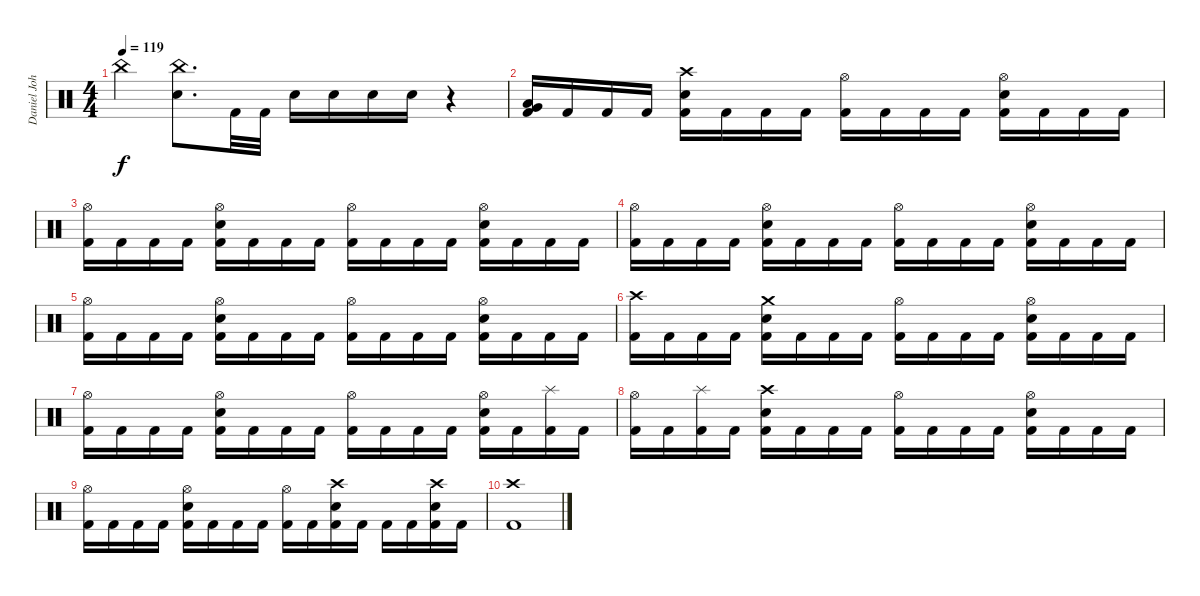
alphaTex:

\track ("Daniel John Erlandson (Drums)" "Daniel Joh") {instrument percussion}
\staff {score}
\articulation defaults
\ts (4 4)
\tempo 119
\clef neutral
\ks c "China (hit)".4{dy f}
("Snare (hit) 2" "China (hit)").8{d} "Kick (hit) 2".32 "Kick (hit) 2".32 "Snare (hit) 2".16 "Snare (hit) 2".16 "Snare (hit) 2".16 "Snare (hit) 2".16 r.4 |
("Low Floor Tom (hit)" "Very Low Tom (hit)" "Kick (hit) 2").16 "Kick (hit) 2".16 "Kick (hit) 2".16 "Kick (hit) 2".16 ("Crash high (hit)" "Snare (hit) 2" "Kick (hit) 2").16 "Kick (hit) 2".16 "Kick (hit) 2".16 "Kick (hit) 2".16 ("Hi-Hat (open)" "Kick (hit) 2").16 "Kick (hit) 2".16 "Kick (hit) 2".16 "Kick (hit) 2".16 ("Hi-Hat (open)" "Snare (hit) 2" "Kick (hit) 2").16 "Kick (hit) 2".16 "Kick (hit) 2".16 "Kick (hit) 2".16 |
("Hi-Hat (open)" "Kick (hit) 2").16 "Kick (hit) 2".16 "Kick (hit) 2".16 "Kick (hit) 2".16 ("Hi-Hat (open)" "Snare (hit) 2" "Kick (hit) 2").16 "Kick (hit) 2".16 "Kick (hit) 2".16 "Kick (hit) 2".16 ("Hi-Hat (open)" "Kick (hit) 2").16 "Kick (hit) 2".16 "Kick (hit) 2".16 "Kick (hit) 2".16 ("Hi-Hat (open)" "Snare (hit) 2" "Kick (hit) 2").16 "Kick (hit) 2".16 "Kick (hit) 2".16 "Kick (hit) 2".16 |
("Hi-Hat (open)" "Kick (hit) 2").16 "Kick (hit) 2".16 "Kick (hit) 2".16 "Kick (hit) 2".16 ("Hi-Hat (open)" "Snare (hit) 2" "Kick (hit) 2").16 "Kick (hit) 2".16 "Kick (hit) 2".16 "Kick (hit) 2".16 ("Hi-Hat (open)" "Kick (hit) 2").16 "Kick (hit) 2".16 "Kick (hit) 2".16 "Kick (hit) 2".16 ("Hi-Hat (open)" "Snare (hit) 2" "Kick (hit) 2").16 "Kick (hit) 2".16 "Kick (hit) 2".16 "Kick (hit) 2".16 |
("Hi-Hat (open)" "Kick (hit) 2").16 "Kick (hit) 2".16 "Kick (hit) 2".16 "Kick (hit) 2".16 ("Hi-Hat (open)" "Snare (hit) 2" "Kick (hit) 2").16 "Kick (hit) 2".16 "Kick (hit) 2".16 "Kick (hit) 2".16 ("Hi-Hat (open)" "Kick (hit) 2").16 "Kick (hit) 2".16 "Kick (hit) 2".16 "Kick (hit) 2".16 ("Hi-Hat (open)" "Snare (hit) 2" "Kick (hit) 2").16 "Kick (hit) 2".16 "Kick (hit) 2".16 "Kick (hit) 2".16 |
("Crash high (hit)" "Kick (hit) 2").16 "Kick (hit) 2".16 "Kick (hit) 2".16 "Kick (hit) 2".16 ("Crash medium (hit)" "Snare (hit) 2" "Kick (hit) 2").16 "Kick (hit) 2".16 "Kick (hit) 2".16 "Kick (hit) 2".16 ("Hi-Hat (open)" "Kick (hit) 2").16 "Kick (hit) 2".16 "Kick (hit) 2".16 "Kick (hit) 2".16 ("Hi-Hat (open)" "Snare (hit) 2" "Kick (hit) 2").16 "Kick (hit) 2".16 "Kick (hit) 2".16 "Kick (hit) 2".16 |
("Hi-Hat (open)" "Kick (hit) 2").16 "Kick (hit) 2".16 "Kick (hit) 2".16 "Kick (hit) 2".16 ("Hi-Hat (open)" "Snare (hit) 2" "Kick (hit) 2").16 "Kick (hit) 2".16 "Kick (hit) 2".16 "Kick (hit) 2".16 ("Hi-Hat (open)" "Kick (hit) 2").16 "Kick (hit) 2".16 "Kick (hit) 2".16 "Kick (hit) 2".16 ("Hi-Hat (open)" "Snare (hit) 2" "Kick (hit) 2").16 "Kick (hit) 2".16 ("Splash (hit)" "Kick (hit) 2").16 "Kick (hit) 2".16 |
("Hi-Hat (open)" "Kick (hit) 2").16 "Kick (hit) 2".16 ("Splash (hit)" "Kick (hit) 2").16 "Kick (hit) 2".16 ("Crash high (hit)" "Snare (hit) 2" "Kick (hit) 2").16 "Kick (hit) 2".16 "Kick (hit) 2".16 "Kick (hit) 2".16 ("Hi-Hat (open)" "Kick (hit) 2").16 "Kick (hit) 2".16 "Kick (hit) 2".16 "Kick (hit) 2".16 ("Hi-Hat (open)" "Snare (hit) 2" "Kick (hit) 2").16 "Kick (hit) 2".16 "Kick (hit) 2".16 "Kick (hit) 2".16 |
("Hi-Hat (open)" "Kick (hit) 2").16 "Kick (hit) 2".16 "Kick (hit) 2".16 "Kick (hit) 2".16 ("Hi-Hat (open)" "Snare (hit) 2" "Kick (hit) 2").16 "Kick (hit) 2".16 "Kick (hit) 2".16 "Kick (hit) 2".16 ("Hi-Hat (open)" "Kick (hit) 2").16 "Kick (hit) 2".16 ("Crash high (hit)" "Snare (hit) 2" "Kick (hit) 2").16 "Kick (hit) 2".16 "Kick (hit) 2".16 "Kick (hit) 2".16 ("Crash high (hit)" "Snare (hit) 2" "Kick (hit) 2").16 "Kick (hit) 2".16 |
("Crash high (hit)" "Kick (hit) 2").1
